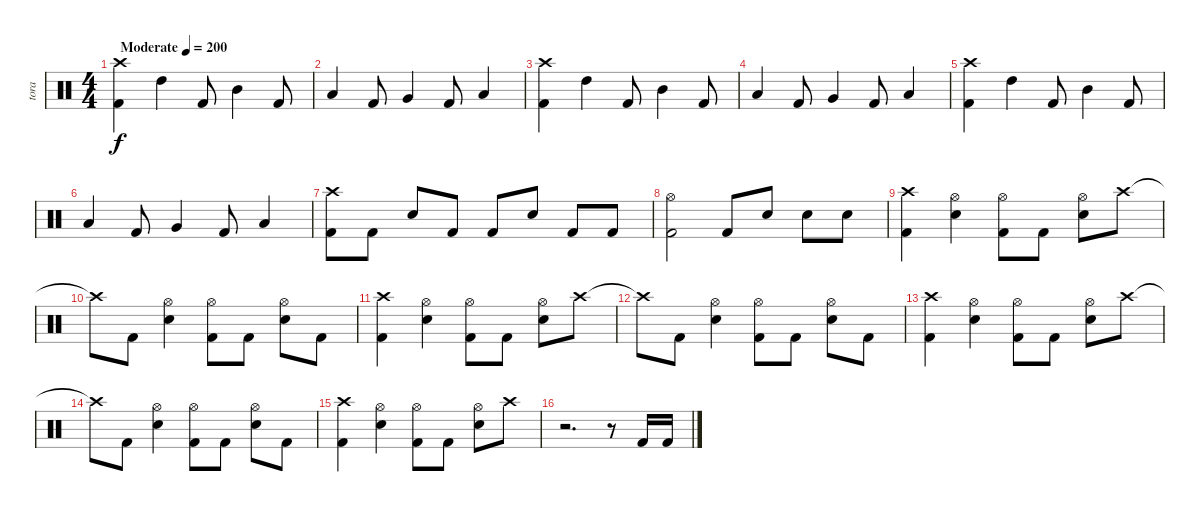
\track ("tora" "tora") {instrument percussion}
\staff {score}
\articulation defaults
\ts (4 4)
\tempo (200 "Moderate")
\clef neutral
\ks c
("Crash high (hit)" "Kick (hit) 2").4{dy f} "High Tom (hit)".4 "Kick (hit) 2".8 "Mid Tom (hit)".4 "Kick (hit) 2".8 |
"Low Tom (hit)".4 "Kick (hit) 2".8 "Very Low Tom (hit)".4 "Kick (hit) 2".8 "Low Floor Tom (hit)".4 |
("Crash high (hit)" "Kick (hit) 2").4 "High Tom (hit)".4 "Kick (hit) 2".8 "Mid Tom (hit)".4 "Kick (hit) 2".8 |
"Low Tom (hit)".4 "Kick (hit) 2".8 "Very Low Tom (hit)".4 "Kick (hit) 2".8 "Low Floor Tom (hit)".4 |
("Crash high (hit)" "Kick (hit) 2").4 "High Tom (hit)".4 "Kick (hit) 2".8 "Mid Tom (hit)".4 "Kick (hit) 2".8 |
"Low Tom (hit)".4 "Kick (hit) 2".8 "Very Low Tom (hit)".4 "Kick (hit) 2".8 "Low Floor Tom (hit)".4 |
("Crash high (hit)" "Kick (hit) 2").8 "Kick (hit) 2".8 "Snare (hit) 2".8 "Kick (hit) 2".8 "Kick (hit) 2".8 "Snare (hit) 2".8 "Kick (hit) 2".8 "Kick (hit) 2".8 |
("Hi-Hat (open)" "Kick (hit) 2").2 "Kick (hit) 2".8 "Snare (hit) 2".8 "Snare (hit) 2".8 "Snare (hit) 2".8 |
("Crash high (hit)" "Kick (hit) 2").4 ("Hi-Hat (open)" "Snare (hit) 2").4 ("Hi-Hat (open)" "Kick (hit) 2").8 "Kick (hit) 2".8 ("Hi-Hat (open)" "Snare (hit) 2").8 "Crash high (hit)".8 |
"Crash high (hit)"{t}.8 "Kick (hit) 2".8 ("Hi-Hat (open)" "Snare (hit) 2").4 ("Hi-Hat (open)" "Kick (hit) 2").8 "Kick (hit) 2".8 ("Hi-Hat (open)" "Snare (hit) 2").8 "Kick (hit) 2".8 |
("Crash high (hit)" "Kick (hit) 2").4 ("Hi-Hat (open)" "Snare (hit) 2").4 ("Hi-Hat (open)" "Kick (hit) 2").8 "Kick (hit) 2".8 ("Hi-Hat (open)" "Snare (hit) 2").8 "Crash high (hit)".8 |
"Crash high (hit)"{t}.8 "Kick (hit) 2".8 ("Hi-Hat (open)" "Snare (hit) 2").4 ("Hi-Hat (open)" "Kick (hit) 2").8 "Kick (hit) 2".8 ("Hi-Hat (open)" "Snare (hit) 2").8 "Kick (hit) 2".8 |
("Crash high (hit)" "Kick (hit) 2").4 ("Hi-Hat (open)" "Snare (hit) 2").4 ("Hi-Hat (open)" "Kick (hit) 2").8 "Kick (hit) 2".8 ("Hi-Hat (open)" "Snare (hit) 2").8 "Crash high (hit)".8 |
"Crash high (hit)"{t}.8 "Kick (hit) 2".8 ("Hi-Hat (open)" "Snare (hit) 2").4 ("Hi-Hat (open)" "Kick (hit) 2").8 "Kick (hit) 2".8 ("Hi-Hat (open)" "Snare (hit) 2").8 "Kick (hit) 2".8 |
("Crash high (hit)" "Kick (hit) 2").4 ("Hi-Hat (open)" "Snare (hit) 2").4 ("Hi-Hat (open)" "Kick (hit) 2").8 "Kick (hit) 2".8 ("Hi-Hat (open)" "Snare (hit) 2").8 "Crash high (hit)".8 |
r.2{d} r.8 "Kick (hit) 2".16 "Kick (hit) 2".16
